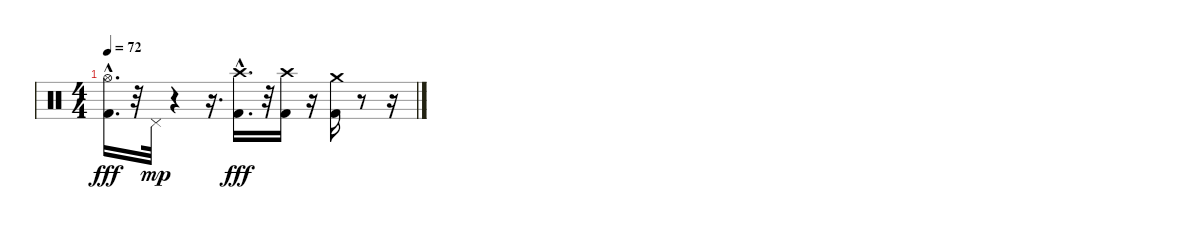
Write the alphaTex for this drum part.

\track "" {instrument percussion}
\staff {score}
\articulation defaults
\ts (4 4)
\tempo 72
\clef neutral
\ks c
("Hi-Hat (open)"{hac} "Kick (hit) 2"{hac}).16{d dy fff} r.32 "Pedal Hi-Hat (hit)".32{dy mp} r.4 r.16{d} ("Crash high (hit)"{hac} "Kick (hit) 2"{hac}).16{d dy fff} r.32 ("Crash high (hit)" "Kick (hit) 2").16 r.16 ("Crash medium (hit)" "Kick (hit) 2").16 r.8 r.16
